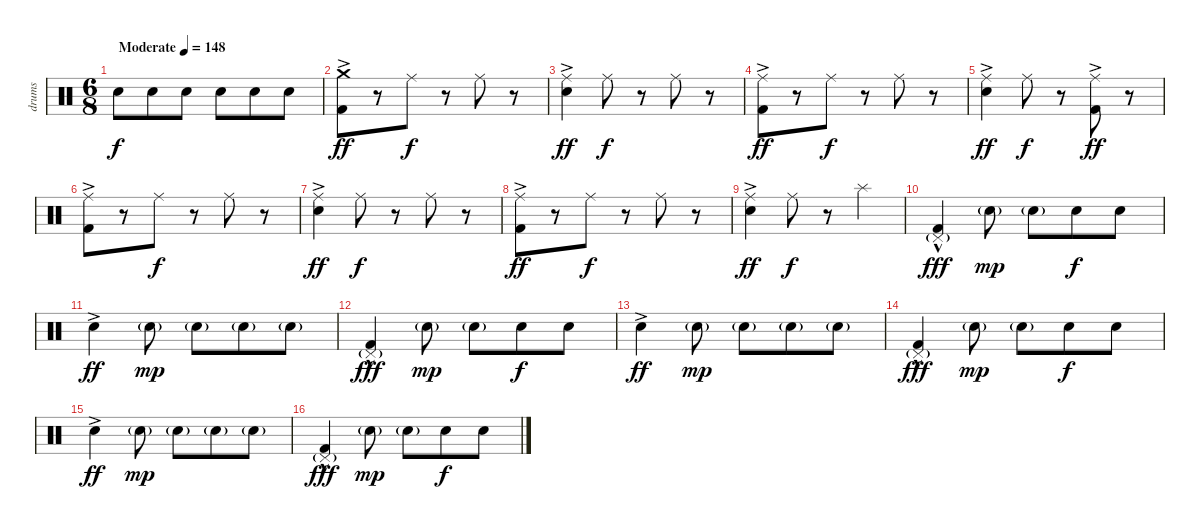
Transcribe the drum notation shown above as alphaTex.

\track ("drums" "drums") {instrument percussion}
\staff {score}
\articulation defaults
\ts (6 8)
\tempo (148 "Moderate")
\clef neutral
\ks c "Electric Snare (hit)".8{dy f} "Electric Snare (hit)".8 "Electric Snare (hit)".8 "Electric Snare (hit)".8 "Electric Snare (hit)".8 "Electric Snare (hit)".8
|
("Crash medium (hit)" "Kick (hit) 2"{ac}).8{dy ff} r.8 "Ride (middle)".8{dy f} r.8 "Ride (middle)".8 r.8 |
("Ride (middle)" "Electric Snare (hit)"{ac}).4{dy ff} "Ride (middle)".8{dy f} r.8 "Ride (middle)".8 r.8 |
("Ride (middle)" "Kick (hit) 2"{ac}).8{dy ff} r.8 "Ride (middle)".8{dy f} r.8 "Ride (middle)".8 r.8 |
("Ride (middle)" "Electric Snare (hit)"{ac}).4{dy ff} "Ride (middle)".8{dy f} r.8 ("Ride (middle)" "Kick (hit) 2"{ac}).8{dy ff} r.8 |
("Ride (middle)" "Kick (hit) 2"{ac}).8 r.8 "Ride (middle)".8{dy f} r.8 "Ride (middle)".8 r.8 |
("Ride (middle)" "Electric Snare (hit)"{ac}).4{dy ff} "Ride (middle)".8{dy f} r.8 "Ride (middle)".8 r.8 |
("Ride (middle)" "Kick (hit) 2"{ac}).8{dy ff} r.8 "Ride (middle)".8{dy f} r.8 "Ride (middle)".8 r.8 |
("Ride (middle)" "Electric Snare (hit)"{ac}).4{dy ff} "Ride (middle)".8{dy f} r.8 "Splash (hit)".4 |
("Pedal Hi-Hat (hit)"{g} "Kick (hit) 2"{hac}).4{dy fff} "Electric Snare (hit)"{g}.8{dy mp} "Electric Snare (hit)"{g}.8 "Electric Snare (hit)".8{dy f} "Electric Snare (hit)".8 |
"Electric Snare (hit)"{ac}.4{dy ff} "Electric Snare (hit)"{g}.8{dy mp} "Electric Snare (hit)"{g}.8 "Electric Snare (hit)"{g}.8 "Electric Snare (hit)"{g}.8 |
("Pedal Hi-Hat (hit)"{g} "Kick (hit) 2"{hac}).4{dy fff} "Electric Snare (hit)"{g}.8{dy mp} "Electric Snare (hit)"{g}.8 "Electric Snare (hit)".8{dy f} "Electric Snare (hit)".8 |
"Electric Snare (hit)"{ac}.4{dy ff} "Electric Snare (hit)"{g}.8{dy mp} "Electric Snare (hit)"{g}.8 "Electric Snare (hit)"{g}.8 "Electric Snare (hit)"{g}.8 |
("Pedal Hi-Hat (hit)"{g} "Kick (hit) 2"{hac}).4{dy fff} "Electric Snare (hit)"{g}.8{dy mp} "Electric Snare (hit)"{g}.8 "Electric Snare (hit)".8{dy f} "Electric Snare (hit)".8 |
"Electric Snare (hit)"{ac}.4{dy ff} "Electric Snare (hit)"{g}.8{dy mp} "Electric Snare (hit)"{g}.8 "Electric Snare (hit)"{g}.8 "Electric Snare (hit)"{g}.8 |
("Pedal Hi-Hat (hit)"{g} "Kick (hit) 2"{hac}).4{dy fff} "Electric Snare (hit)"{g}.8{dy mp} "Electric Snare (hit)"{g}.8 "Electric Snare (hit)".8{dy f} "Electric Snare (hit)".8
